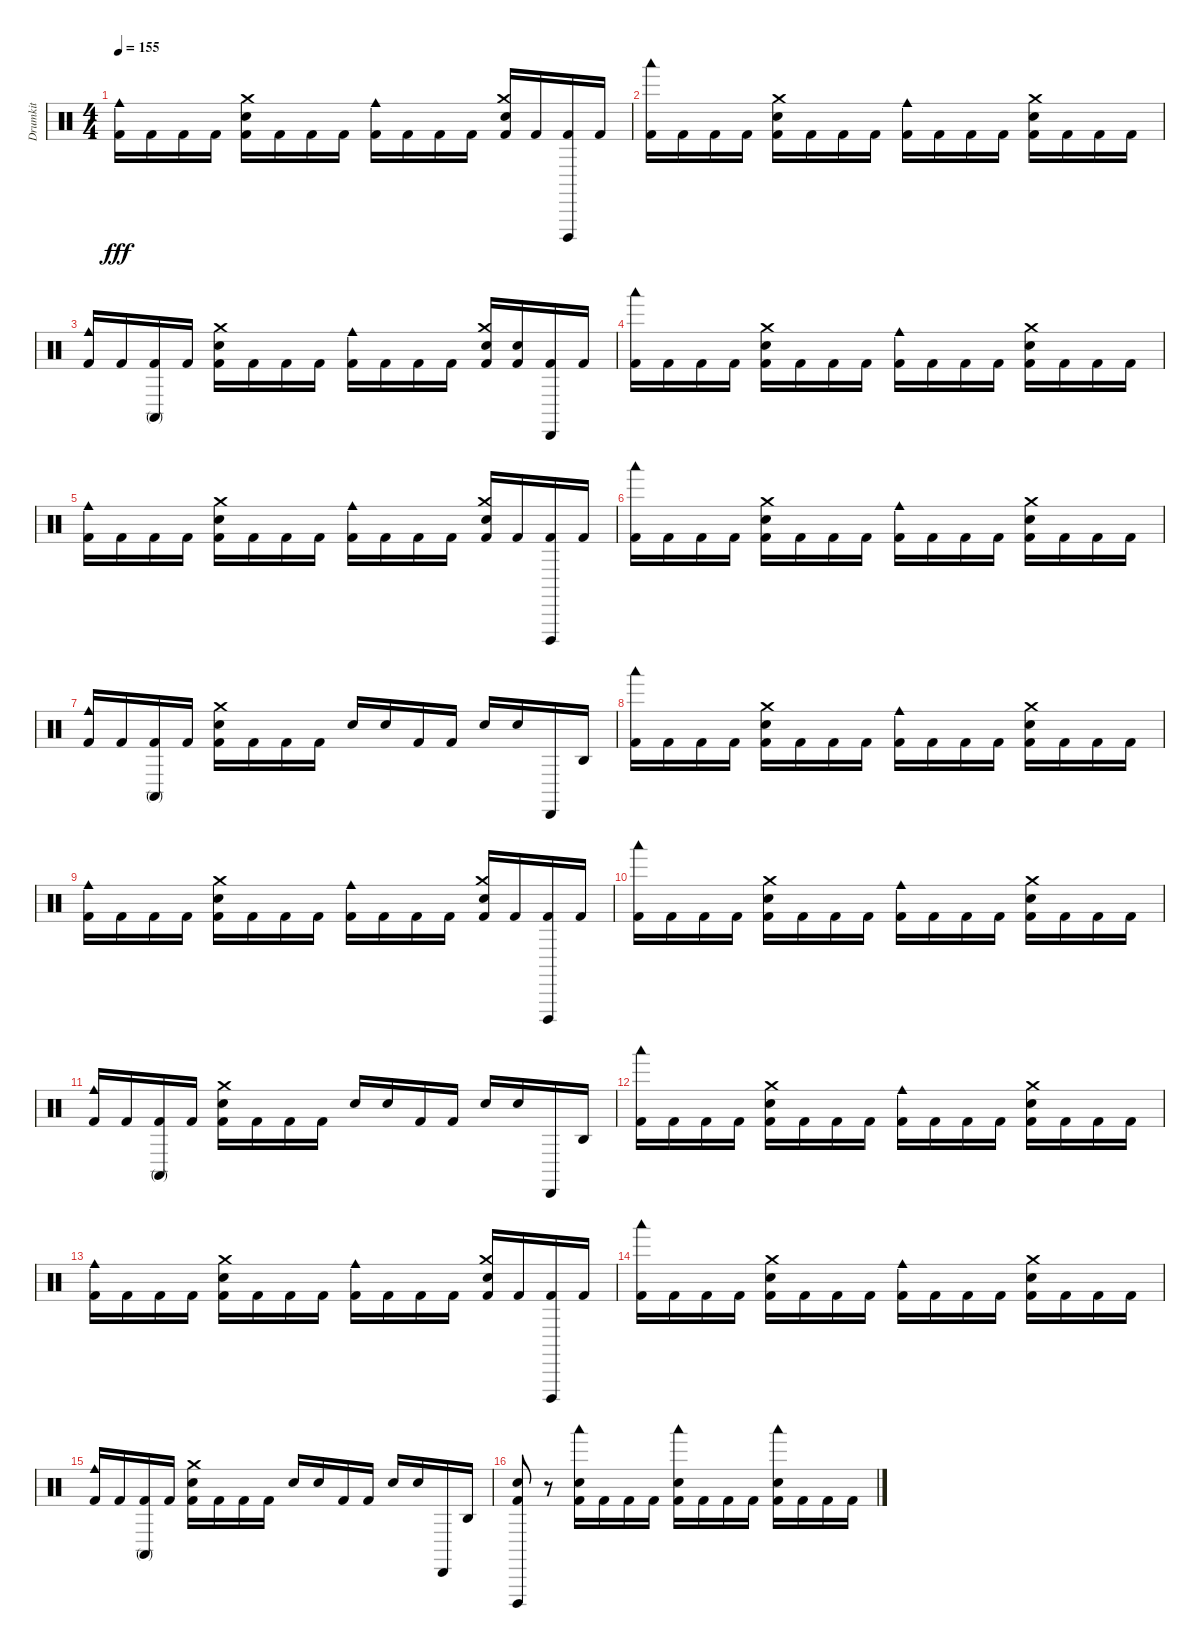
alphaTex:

\track ("Drumkit" "Drumkit") {instrument percussion}
\staff {score}
\articulation defaults
\ts (4 4)
\tempo 155
\clef neutral
\ks c
("Kick (hit) 2" "Cowbell medium (hit)").16{dy fff} "Kick (hit) 2".16 "Kick (hit) 2".16 "Kick (hit) 2".16 ("Kick (hit) 2" "Snare (hit) 2" "Crash medium (hit)").16 "Kick (hit) 2".16 "Kick (hit) 2".16 "Kick (hit) 2".16 ("Kick (hit) 2" "Cowbell medium (hit)").16 "Kick (hit) 2".16 "Kick (hit) 2".16 "Kick (hit) 2".16 ("Kick (hit) 2" "Snare (hit) 2" "Crash medium (hit)").16 "Kick (hit) 2".16 ("Kick (hit) 2" "Cuica (open)").16 "Kick (hit) 2".16 |
("Kick (hit) 2" "Woodblock low (hit)").16 "Kick (hit) 2".16 "Kick (hit) 2".16 "Kick (hit) 2".16 ("Kick (hit) 2" "Snare (hit) 2" "Crash medium (hit)").16 "Kick (hit) 2".16 "Kick (hit) 2".16 "Kick (hit) 2".16 ("Kick (hit) 2" "Cowbell medium (hit)").16 "Kick (hit) 2".16 "Kick (hit) 2".16 "Kick (hit) 2".16 ("Kick (hit) 2" "Snare (hit) 2" "Crash medium (hit)").16 "Kick (hit) 2".16 "Kick (hit) 2".16 "Kick (hit) 2".16 |
("Kick (hit) 2" "Cowbell medium (hit)").16 "Kick (hit) 2".16 ("Kick (hit) 2" "Conga high (mute)").16 "Kick (hit) 2".16 ("Kick (hit) 2" "Snare (hit) 2" "Crash medium (hit)").16 "Kick (hit) 2".16 "Kick (hit) 2".16 "Kick (hit) 2".16 ("Kick (hit) 2" "Cowbell medium (hit)").16 "Kick (hit) 2".16 "Kick (hit) 2".16 "Kick (hit) 2".16 ("Kick (hit) 2" "Snare (hit) 2" "Crash medium (hit)").16 ("Kick (hit) 2" "Snare (hit) 2").16 ("Kick (hit) 2" "Cabasa (hit)").16 "Kick (hit) 2".16 |
("Kick (hit) 2" "Woodblock low (hit)").16 "Kick (hit) 2".16 "Kick (hit) 2".16 "Kick (hit) 2".16 ("Kick (hit) 2" "Snare (hit) 2" "Crash medium (hit)").16 "Kick (hit) 2".16 "Kick (hit) 2".16 "Kick (hit) 2".16 ("Kick (hit) 2" "Cowbell medium (hit)").16 "Kick (hit) 2".16 "Kick (hit) 2".16 "Kick (hit) 2".16 ("Kick (hit) 2" "Snare (hit) 2" "Crash medium (hit)").16 "Kick (hit) 2".16 "Kick (hit) 2".16 "Kick (hit) 2".16 |
("Kick (hit) 2" "Cowbell medium (hit)").16 "Kick (hit) 2".16 "Kick (hit) 2".16 "Kick (hit) 2".16 ("Kick (hit) 2" "Snare (hit) 2" "Crash medium (hit)").16 "Kick (hit) 2".16 "Kick (hit) 2".16 "Kick (hit) 2".16 ("Kick (hit) 2" "Cowbell medium (hit)").16 "Kick (hit) 2".16 "Kick (hit) 2".16 "Kick (hit) 2".16 ("Kick (hit) 2" "Snare (hit) 2" "Crash medium (hit)").16 "Kick (hit) 2".16 ("Kick (hit) 2" "Cuica (open)").16 "Kick (hit) 2".16 |
("Kick (hit) 2" "Woodblock low (hit)").16 "Kick (hit) 2".16 "Kick (hit) 2".16 "Kick (hit) 2".16 ("Kick (hit) 2" "Snare (hit) 2" "Crash medium (hit)").16 "Kick (hit) 2".16 "Kick (hit) 2".16 "Kick (hit) 2".16 ("Kick (hit) 2" "Cowbell medium (hit)").16 "Kick (hit) 2".16 "Kick (hit) 2".16 "Kick (hit) 2".16 ("Kick (hit) 2" "Snare (hit) 2" "Crash medium (hit)").16 "Kick (hit) 2".16 "Kick (hit) 2".16 "Kick (hit) 2".16 |
("Kick (hit) 2" "Cowbell medium (hit)").16 "Kick (hit) 2".16 ("Kick (hit) 2" "Conga high (mute)").16 "Kick (hit) 2".16 ("Kick (hit) 2" "Snare (hit) 2" "Crash medium (hit)").16 "Kick (hit) 2".16 "Kick (hit) 2".16 "Kick (hit) 2".16 "Snare (hit) 2".16 "Hand Clap (hit)".16 "Kick (hit) 2".16 "Kick (hit) 2".16 "Snare (hit) 2".16 "Hand Clap (hit)".16 "Cabasa (hit)".16 "Agogo high (hit)".16 |
("Kick (hit) 2" "Woodblock low (hit)").16 "Kick (hit) 2".16 "Kick (hit) 2".16 "Kick (hit) 2".16 ("Kick (hit) 2" "Snare (hit) 2" "Crash medium (hit)").16 "Kick (hit) 2".16 "Kick (hit) 2".16 "Kick (hit) 2".16 ("Kick (hit) 2" "Cowbell medium (hit)").16 "Kick (hit) 2".16 "Kick (hit) 2".16 "Kick (hit) 2".16 ("Kick (hit) 2" "Snare (hit) 2" "Crash medium (hit)").16 "Kick (hit) 2".16 "Kick (hit) 2".16 "Kick (hit) 2".16 |
("Kick (hit) 2" "Cowbell medium (hit)").16 "Kick (hit) 2".16 "Kick (hit) 2".16 "Kick (hit) 2".16 ("Kick (hit) 2" "Snare (hit) 2" "Crash medium (hit)").16 "Kick (hit) 2".16 "Kick (hit) 2".16 "Kick (hit) 2".16 ("Kick (hit) 2" "Cowbell medium (hit)").16 "Kick (hit) 2".16 "Kick (hit) 2".16 "Kick (hit) 2".16 ("Kick (hit) 2" "Snare (hit) 2" "Crash medium (hit)").16 "Kick (hit) 2".16 ("Kick (hit) 2" "Cuica (open)").16 "Kick (hit) 2".16 |
("Kick (hit) 2" "Woodblock low (hit)").16 "Kick (hit) 2".16 "Kick (hit) 2".16 "Kick (hit) 2".16 ("Kick (hit) 2" "Snare (hit) 2" "Crash medium (hit)").16 "Kick (hit) 2".16 "Kick (hit) 2".16 "Kick (hit) 2".16 ("Kick (hit) 2" "Cowbell medium (hit)").16 "Kick (hit) 2".16 "Kick (hit) 2".16 "Kick (hit) 2".16 ("Kick (hit) 2" "Snare (hit) 2" "Crash medium (hit)").16 "Kick (hit) 2".16 "Kick (hit) 2".16 "Kick (hit) 2".16 |
("Kick (hit) 2" "Cowbell medium (hit)").16 "Kick (hit) 2".16 ("Kick (hit) 2" "Conga high (mute)").16 "Kick (hit) 2".16 ("Kick (hit) 2" "Snare (hit) 2" "Crash medium (hit)").16 "Kick (hit) 2".16 "Kick (hit) 2".16 "Kick (hit) 2".16 "Snare (hit) 2".16 "Hand Clap (hit)".16 "Kick (hit) 2".16 "Kick (hit) 2".16 "Snare (hit) 2".16 "Hand Clap (hit)".16 "Cabasa (hit)".16 "Agogo high (hit)".16 |
("Kick (hit) 2" "Woodblock low (hit)").16 "Kick (hit) 2".16 "Kick (hit) 2".16 "Kick (hit) 2".16 ("Kick (hit) 2" "Snare (hit) 2" "Crash medium (hit)").16 "Kick (hit) 2".16 "Kick (hit) 2".16 "Kick (hit) 2".16 ("Kick (hit) 2" "Cowbell medium (hit)").16 "Kick (hit) 2".16 "Kick (hit) 2".16 "Kick (hit) 2".16 ("Kick (hit) 2" "Snare (hit) 2" "Crash medium (hit)").16 "Kick (hit) 2".16 "Kick (hit) 2".16 "Kick (hit) 2".16 |
("Kick (hit) 2" "Cowbell medium (hit)").16 "Kick (hit) 2".16 "Kick (hit) 2".16 "Kick (hit) 2".16 ("Kick (hit) 2" "Snare (hit) 2" "Crash medium (hit)").16 "Kick (hit) 2".16 "Kick (hit) 2".16 "Kick (hit) 2".16 ("Kick (hit) 2" "Cowbell medium (hit)").16 "Kick (hit) 2".16 "Kick (hit) 2".16 "Kick (hit) 2".16 ("Kick (hit) 2" "Snare (hit) 2" "Crash medium (hit)").16 "Kick (hit) 2".16 ("Kick (hit) 2" "Cuica (open)").16 "Kick (hit) 2".16 |
("Kick (hit) 2" "Woodblock low (hit)").16 "Kick (hit) 2".16 "Kick (hit) 2".16 "Kick (hit) 2".16 ("Kick (hit) 2" "Snare (hit) 2" "Crash medium (hit)").16 "Kick (hit) 2".16 "Kick (hit) 2".16 "Kick (hit) 2".16 ("Kick (hit) 2" "Cowbell medium (hit)").16 "Kick (hit) 2".16 "Kick (hit) 2".16 "Kick (hit) 2".16 ("Kick (hit) 2" "Snare (hit) 2" "Crash medium (hit)").16 "Kick (hit) 2".16 "Kick (hit) 2".16 "Kick (hit) 2".16 |
("Kick (hit) 2" "Cowbell medium (hit)").16 "Kick (hit) 2".16 ("Kick (hit) 2" "Conga high (mute)").16 "Kick (hit) 2".16 ("Kick (hit) 2" "Snare (hit) 2" "Crash medium (hit)").16 "Kick (hit) 2".16 "Kick (hit) 2".16 "Kick (hit) 2".16 "Snare (hit) 2".16 "Hand Clap (hit)".16 "Kick (hit) 2".16 "Kick (hit) 2".16 "Snare (hit) 2".16 "Hand Clap (hit)".16 "Cabasa (hit)".16 "Agogo high (hit)".16 |
("Kick (hit) 2" "Snare (hit) 2" "Cuica (open)").8 r.8 ("Kick (hit) 2" "Snare (hit) 2" "Woodblock low (hit)").16 "Kick (hit) 2".16 "Kick (hit) 2".16 "Kick (hit) 2".16 ("Kick (hit) 2" "Snare (hit) 2" "Woodblock low (hit)").16 "Kick (hit) 2".16 "Kick (hit) 2".16 "Kick (hit) 2".16 ("Kick (hit) 2" "Snare (hit) 2" "Woodblock low (hit)").16 "Kick (hit) 2".16 "Kick (hit) 2".16 "Kick (hit) 2".16
